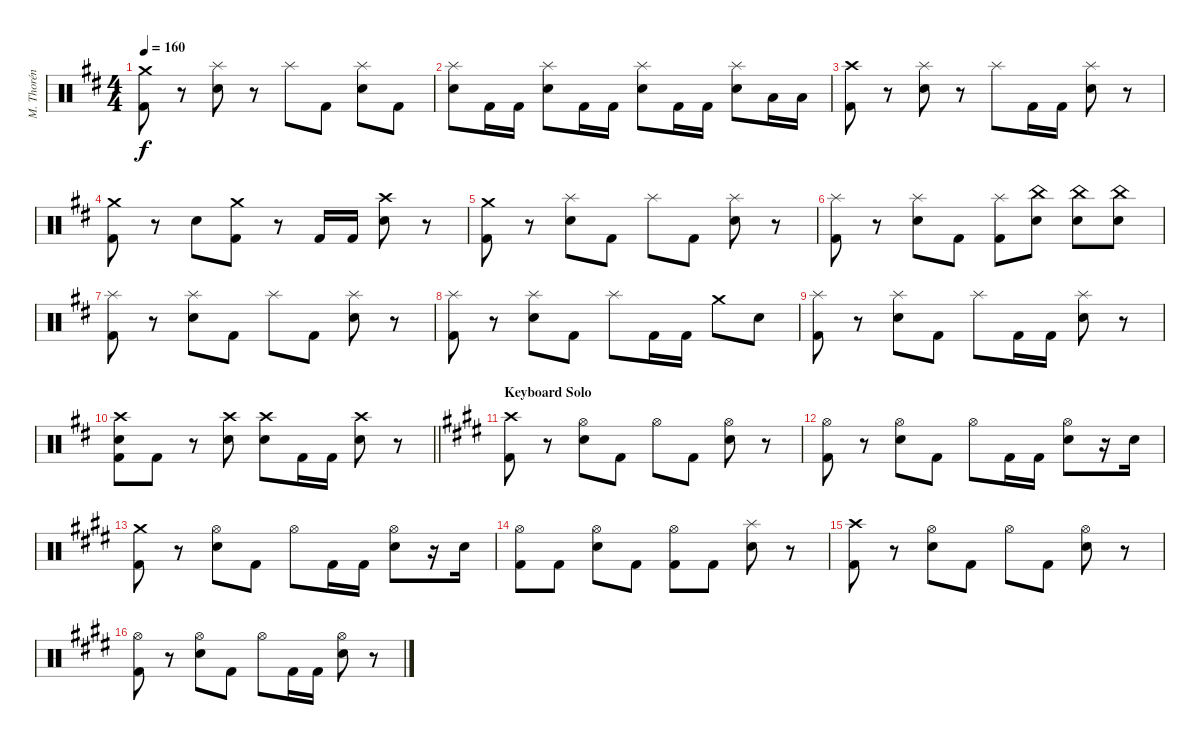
\track ("M. Thorén (Drums)" "M. Thorén ") {instrument percussion}
\staff {score}
\articulation defaults
\ts (4 4)
\tempo 160
\clef neutral
\ks bminor
("Crash medium (hit)" "Kick (hit) 2").8{dy f} r.8 ("Splash (hit)" "Electric Snare (hit)").8 r.8 "Splash (hit)".8 "Kick (hit) 2".8 ("Splash (hit)" "Electric Snare (hit)").8 "Kick (hit) 2".8 |
("Splash (hit)" "Electric Snare (hit)").8 "Kick (hit) 2".16 "Kick (hit) 2".16 ("Splash (hit)" "Electric Snare (hit)").8 "Kick (hit) 2".16 "Kick (hit) 2".16 ("Splash (hit)" "Electric Snare (hit)").8 "Kick (hit) 2".16 "Kick (hit) 2".16 ("Splash (hit)" "Electric Snare (hit)").8 "Low Tom (hit)".16 "Low Tom (hit)".16 |
("Crash high (hit)" "Kick (hit) 2").8 r.8 ("Splash (hit)" "Electric Snare (hit)").8 r.8 "Splash (hit)".8 "Kick (hit) 2".16 "Kick (hit) 2".16 ("Splash (hit)" "Electric Snare (hit)").8 r.8 |
("Crash medium (hit)" "Kick (hit) 2").8 r.8 "Electric Snare (hit)".8 ("Crash medium (hit)" "Kick (hit) 2").8 r.8 "Kick (hit) 2".16 "Kick (hit) 2".16 ("Crash high (hit)" "Electric Snare (hit)").8 r.8 |
("Crash medium (hit)" "Kick (hit) 2").8 r.8 ("Splash (hit)" "Electric Snare (hit)").8 "Kick (hit) 2".8 "Splash (hit)".8 "Kick (hit) 2".8 ("Splash (hit)" "Electric Snare (hit)").8 r.8 |
("Splash (hit)" "Kick (hit) 2").8 r.8 ("Splash (hit)" "Electric Snare (hit)").8 "Kick (hit) 2".8 ("Splash (hit)" "Kick (hit) 2").8 ("China (hit)" "Electric Snare (hit)").8 ("China (hit)" "Electric Snare (hit)").8 ("China (hit)" "Electric Snare (hit)").8 |
("Splash (hit)" "Kick (hit) 2").8 r.8 ("Splash (hit)" "Electric Snare (hit)").8 "Kick (hit) 2".8 "Splash (hit)".8 "Kick (hit) 2".8 ("Splash (hit)" "Electric Snare (hit)").8 r.8 |
("Splash (hit)" "Kick (hit) 2").8 r.8 ("Splash (hit)" "Electric Snare (hit)").8 "Kick (hit) 2".8 "Splash (hit)".8 "Kick (hit) 2".16 "Kick (hit) 2".16 "Crash medium (hit)".8 "Electric Snare (hit)".8 |
("Splash (hit)" "Kick (hit) 2").8 r.8 ("Splash (hit)" "Electric Snare (hit)").8 "Kick (hit) 2".8 "Splash (hit)".8 "Kick (hit) 2".16 "Kick (hit) 2".16 ("Splash (hit)" "Electric Snare (hit)").8 r.8 |
\barLineRight lightlight
("Crash high (hit)" "Electric Snare (hit)" "Kick (hit) 2").8 "Kick (hit) 2".8 r.8 ("Crash high (hit)" "Electric Snare (hit)").8 ("Crash high (hit)" "Electric Snare (hit)").8 "Kick (hit) 2".16 "Kick (hit) 2".16 ("Crash high (hit)" "Electric Snare (hit)").8 r.8 |
\section ("" "Keyboard Solo")
\ks c#minor
("Crash high (hit)" "Kick (hit) 2").8 r.8 ("Hi-Hat (open)" "Electric Snare (hit)").8 "Kick (hit) 2".8 "Hi-Hat (open)".8 "Kick (hit) 2".8 ("Hi-Hat (open)" "Electric Snare (hit)").8 r.8 |
("Hi-Hat (open)" "Kick (hit) 2").8 r.8 ("Hi-Hat (open)" "Electric Snare (hit)").8 "Kick (hit) 2".8 "Hi-Hat (open)".8 "Kick (hit) 2".16 "Kick (hit) 2".16 ("Hi-Hat (open)" "Electric Snare (hit)").8 r.16 "Electric Snare (hit)".16 |
("Crash medium (hit)" "Kick (hit) 2").8 r.8 ("Hi-Hat (open)" "Electric Snare (hit)").8 "Kick (hit) 2".8 "Hi-Hat (open)".8 "Kick (hit) 2".16 "Kick (hit) 2".16 ("Hi-Hat (open)" "Electric Snare (hit)").8 r.16 "Electric Snare (hit)".16 |
("Hi-Hat (open)" "Kick (hit) 2").8 "Kick (hit) 2".8 ("Hi-Hat (open)" "Electric Snare (hit)").8 "Kick (hit) 2".8 ("Hi-Hat (open)" "Kick (hit) 2").8 "Kick (hit) 2".8 ("Splash (hit)" "Electric Snare (hit)").8 r.8 |
("Crash high (hit)" "Kick (hit) 2").8 r.8 ("Hi-Hat (open)" "Electric Snare (hit)").8 "Kick (hit) 2".8 "Hi-Hat (open)".8 "Kick (hit) 2".8 ("Hi-Hat (open)" "Electric Snare (hit)").8 r.8 |
("Hi-Hat (open)" "Kick (hit) 2").8 r.8 ("Hi-Hat (open)" "Electric Snare (hit)").8 "Kick (hit) 2".8 "Hi-Hat (open)".8 "Kick (hit) 2".16 "Kick (hit) 2".16 ("Hi-Hat (open)" "Electric Snare (hit)").8 r.8
